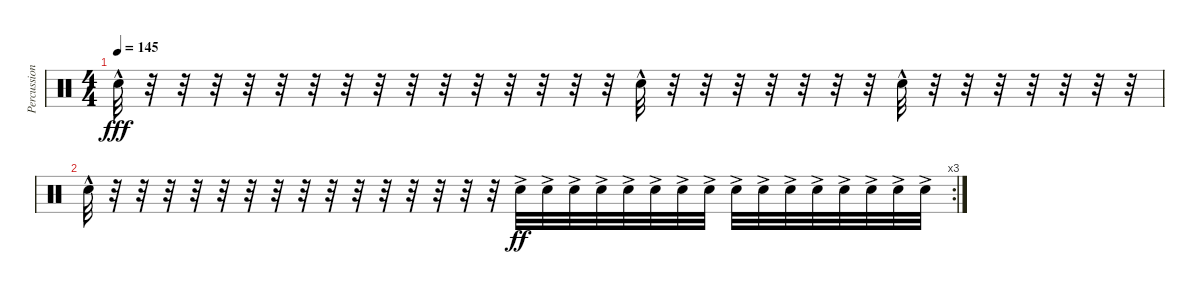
\track ("Percussion" "Percussion") {instrument percussion}
\staff {score}
\articulation defaults
\ts (4 4)
\tempo 145
\clef neutral
\ks c "Snare (hit) 2"{hac}.32{dy fff}
r.32 r.32 r.32 r.32 r.32 r.32 r.32 r.32 r.32 r.32 r.32 r.32 r.32 r.32 r.32 "Snare (hit) 2"{hac}.32 r.32 r.32 r.32 r.32 r.32 r.32 r.32 "Snare (hit) 2"{hac}.32 r.32 r.32 r.32 r.32 r.32 r.32 r.32 |
\rc 3 "Snare (hit) 2"{hac}.32
r.32 r.32 r.32 r.32 r.32 r.32 r.32 r.32 r.32 r.32 r.32 r.32 r.32 r.32 r.32 "Snare (hit) 2"{ac}.32{dy ff} "Snare (hit) 2"{ac}.32 "Snare (hit) 2"{ac}.32 "Snare (hit) 2"{ac}.32 "Snare (hit) 2"{ac}.32 "Snare (hit) 2"{ac}.32 "Snare (hit) 2"{ac}.32 "Snare (hit) 2"{ac}.32 "Snare (hit) 2"{ac}.32 "Snare (hit) 2"{ac}.32 "Snare (hit) 2"{ac}.32 "Snare (hit) 2"{ac}.32 "Snare (hit) 2"{ac}.32 "Snare (hit) 2"{ac}.32 "Snare (hit) 2"{ac}.32 "Snare (hit) 2"{ac}.32
